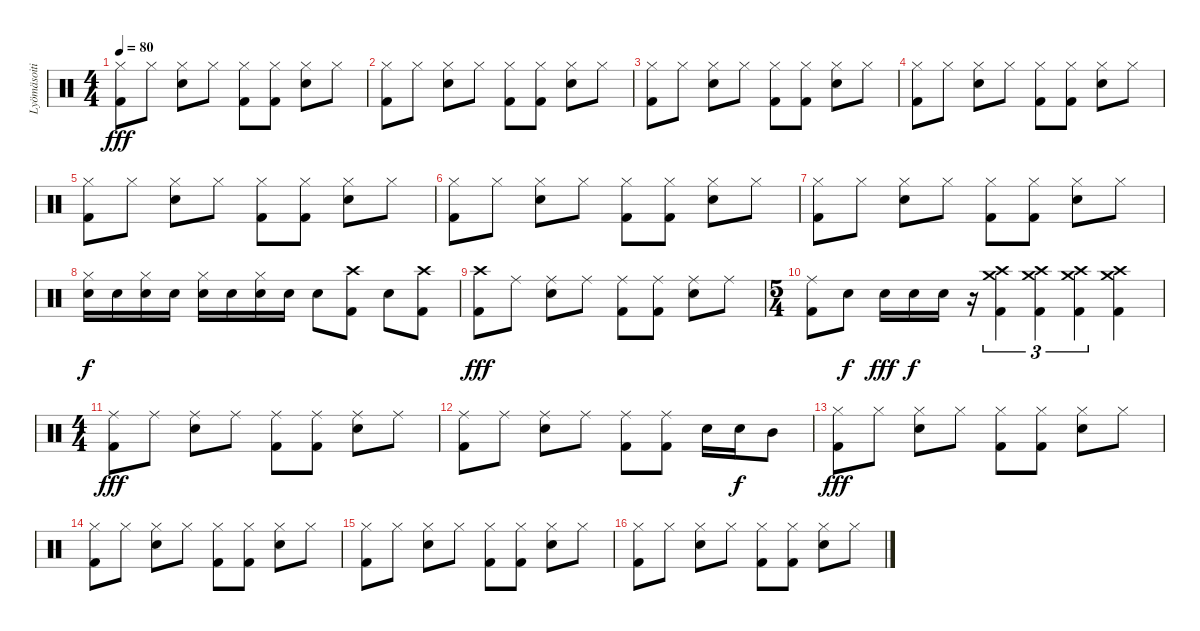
\track ("Lyömäsoitin" "Lyömäsoiti") {instrument percussion}
\staff {score}
\articulation defaults
\ts (4 4)
\tempo 80
\clef neutral
\ks c
("Hi-Hat (closed)" "Kick (hit) 2").8{dy fff} "Hi-Hat (closed)".8 ("Hi-Hat (closed)" "Electric Snare (hit)").8 "Hi-Hat (closed)".8 ("Hi-Hat (closed)" "Kick (hit) 2").8 ("Hi-Hat (closed)" "Kick (hit) 2").8 ("Hi-Hat (closed)" "Electric Snare (hit)").8 "Hi-Hat (closed)".8 |
("Hi-Hat (closed)" "Kick (hit) 2").8 "Hi-Hat (closed)".8 ("Hi-Hat (closed)" "Electric Snare (hit)").8 "Hi-Hat (closed)".8 ("Hi-Hat (closed)" "Kick (hit) 2").8 ("Hi-Hat (closed)" "Kick (hit) 2").8 ("Hi-Hat (closed)" "Electric Snare (hit)").8 "Hi-Hat (closed)".8 |
("Hi-Hat (closed)" "Kick (hit) 2").8 "Hi-Hat (closed)".8 ("Hi-Hat (closed)" "Electric Snare (hit)").8 "Hi-Hat (closed)".8 ("Hi-Hat (closed)" "Kick (hit) 2").8 ("Hi-Hat (closed)" "Kick (hit) 2").8 ("Hi-Hat (closed)" "Electric Snare (hit)").8 "Hi-Hat (closed)".8 |
("Hi-Hat (closed)" "Kick (hit) 2").8 "Hi-Hat (closed)".8 ("Hi-Hat (closed)" "Electric Snare (hit)").8 "Hi-Hat (closed)".8 ("Hi-Hat (closed)" "Kick (hit) 2").8 ("Hi-Hat (closed)" "Kick (hit) 2").8 ("Hi-Hat (closed)" "Electric Snare (hit)").8 "Hi-Hat (closed)".8 |
("Hi-Hat (closed)" "Kick (hit) 2").8 "Hi-Hat (closed)".8 ("Hi-Hat (closed)" "Electric Snare (hit)").8 "Hi-Hat (closed)".8 ("Hi-Hat (closed)" "Kick (hit) 2").8 ("Hi-Hat (closed)" "Kick (hit) 2").8 ("Hi-Hat (closed)" "Electric Snare (hit)").8 "Hi-Hat (closed)".8 |
("Hi-Hat (closed)" "Kick (hit) 2").8 "Hi-Hat (closed)".8 ("Hi-Hat (closed)" "Electric Snare (hit)").8 "Hi-Hat (closed)".8 ("Hi-Hat (closed)" "Kick (hit) 2").8 ("Hi-Hat (closed)" "Kick (hit) 2").8 ("Hi-Hat (closed)" "Electric Snare (hit)").8 "Hi-Hat (closed)".8 |
("Hi-Hat (closed)" "Kick (hit) 2").8 "Hi-Hat (closed)".8 ("Hi-Hat (closed)" "Electric Snare (hit)").8 "Hi-Hat (closed)".8 ("Hi-Hat (closed)" "Kick (hit) 2").8 ("Hi-Hat (closed)" "Kick (hit) 2").8 ("Hi-Hat (closed)" "Electric Snare (hit)").8 "Hi-Hat (closed)".8 |
("Hi-Hat (closed)" "Electric Snare (hit)").16{dy f} "Electric Snare (hit)".16 ("Hi-Hat (closed)" "Electric Snare (hit)").16 "Electric Snare (hit)".16 ("Hi-Hat (closed)" "Electric Snare (hit)").16 "Electric Snare (hit)".16 ("Hi-Hat (closed)" "Electric Snare (hit)").16 "Electric Snare (hit)".16 "Electric Snare (hit)".8 ("Crash high (hit)" "Kick (hit) 2").8 "Electric Snare (hit)".8 ("Crash high (hit)" "Kick (hit) 2").8 |
("Crash high (hit)" "Kick (hit) 2").8{dy fff} "Ride (middle)".8 ("Ride (middle)" "Electric Snare (hit)").8 "Ride (middle)".8 ("Ride (middle)" "Kick (hit) 2").8 ("Ride (middle)" "Kick (hit) 2").8 ("Ride (middle)" "Electric Snare (hit)").8 "Ride (middle)".8 |
\ts (5 4)
("Ride (middle)" "Kick (hit) 2").8 "Electric Snare (hit)".8{dy f} "Electric Snare (hit)".16{dy fff} "Electric Snare (hit)".16{dy f} "Electric Snare (hit)".16 r.16 ("Crash high (hit)" "Crash medium (hit)" "Kick (hit) 2").4{tu (3 2)} ("Crash high (hit)" "Crash medium (hit)" "Kick (hit) 2").4{tu (3 2)} ("Crash high (hit)" "Crash medium (hit)" "Kick (hit) 2").4{tu (3 2)} ("Crash high (hit)" "Crash medium (hit)" "Kick (hit) 2").4 |
\ts (4 4)
("Ride (middle)" "Kick (hit) 2").8{dy fff} "Ride (middle)".8 ("Ride (middle)" "Electric Snare (hit)").8 "Ride (middle)".8 ("Ride (middle)" "Kick (hit) 2").8 ("Ride (middle)" "Kick (hit) 2").8 ("Ride (middle)" "Electric Snare (hit)").8 "Ride (middle)".8 |
("Ride (middle)" "Kick (hit) 2").8 "Ride (middle)".8 ("Ride (middle)" "Electric Snare (hit)").8 "Ride (middle)".8 ("Ride (middle)" "Kick (hit) 2").8 ("Ride (middle)" "Kick (hit) 2").8 "Electric Snare (hit)".16 "Electric Snare (hit)".16{dy f} "Mid Tom (hit)".8 |
("Hi-Hat (closed)" "Kick (hit) 2").8{dy fff} "Hi-Hat (closed)".8 ("Hi-Hat (closed)" "Electric Snare (hit)").8 "Hi-Hat (closed)".8 ("Hi-Hat (closed)" "Kick (hit) 2").8 ("Hi-Hat (closed)" "Kick (hit) 2").8 ("Hi-Hat (closed)" "Electric Snare (hit)").8 "Hi-Hat (closed)".8 |
("Hi-Hat (closed)" "Kick (hit) 2").8 "Hi-Hat (closed)".8 ("Hi-Hat (closed)" "Electric Snare (hit)").8 "Hi-Hat (closed)".8 ("Hi-Hat (closed)" "Kick (hit) 2").8 ("Hi-Hat (closed)" "Kick (hit) 2").8 ("Hi-Hat (closed)" "Electric Snare (hit)").8 "Hi-Hat (closed)".8 |
("Hi-Hat (closed)" "Kick (hit) 2").8 "Hi-Hat (closed)".8 ("Hi-Hat (closed)" "Electric Snare (hit)").8 "Hi-Hat (closed)".8 ("Hi-Hat (closed)" "Kick (hit) 2").8 ("Hi-Hat (closed)" "Kick (hit) 2").8 ("Hi-Hat (closed)" "Electric Snare (hit)").8 "Hi-Hat (closed)".8 |
("Hi-Hat (closed)" "Kick (hit) 2").8 "Hi-Hat (closed)".8 ("Hi-Hat (closed)" "Electric Snare (hit)").8 "Hi-Hat (closed)".8 ("Hi-Hat (closed)" "Kick (hit) 2").8 ("Hi-Hat (closed)" "Kick (hit) 2").8 ("Hi-Hat (closed)" "Electric Snare (hit)").8 "Hi-Hat (closed)".8
